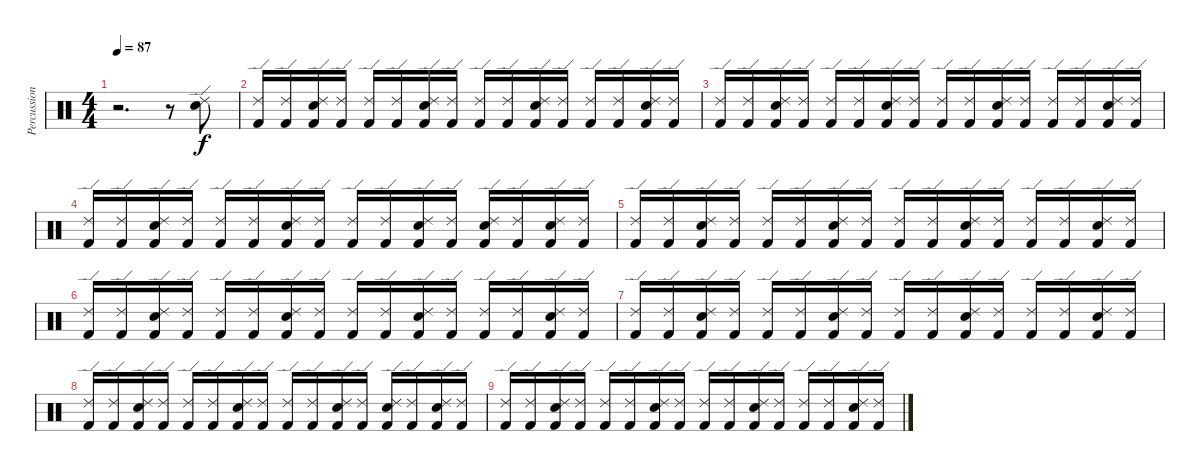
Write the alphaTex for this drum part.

\track ("Percussion" "Percussion") {instrument percussion}
\staff {score}
\articulation defaults
\ts (4 4)
\tempo 87
\clef neutral
\ks c
r.2{d dy f} r.8 ("Ride (edge) 2" "Snare (hit) 2").8 |
("Ride (edge) 2" "Kick (hit) 2").16 ("Ride (edge) 2" "Kick (hit) 2").16 ("Ride (edge) 2" "Snare (hit) 2" "Kick (hit) 2").16 ("Ride (edge) 2" "Kick (hit) 2").16 ("Ride (edge) 2" "Kick (hit) 2").16 ("Ride (edge) 2" "Kick (hit) 2").16 ("Ride (edge) 2" "Snare (hit) 2" "Kick (hit) 2").16 ("Ride (edge) 2" "Kick (hit) 2").16 ("Ride (edge) 2" "Kick (hit) 2").16 ("Ride (edge) 2" "Kick (hit) 2").16 ("Ride (edge) 2" "Snare (hit) 2" "Kick (hit) 2").16 ("Ride (edge) 2" "Kick (hit) 2").16 ("Ride (edge) 2" "Kick (hit) 2").16 ("Ride (edge) 2" "Kick (hit) 2").16 ("Ride (edge) 2" "Snare (hit) 2" "Kick (hit) 2").16 ("Ride (edge) 2" "Kick (hit) 2").16 |
("Ride (edge) 2" "Kick (hit) 2").16 ("Ride (edge) 2" "Kick (hit) 2").16 ("Ride (edge) 2" "Snare (hit) 2" "Kick (hit) 2").16 ("Ride (edge) 2" "Kick (hit) 2").16 ("Ride (edge) 2" "Kick (hit) 2").16 ("Ride (edge) 2" "Kick (hit) 2").16 ("Ride (edge) 2" "Snare (hit) 2" "Kick (hit) 2").16 ("Ride (edge) 2" "Kick (hit) 2").16 ("Ride (edge) 2" "Kick (hit) 2").16 ("Ride (edge) 2" "Kick (hit) 2").16 ("Ride (edge) 2" "Snare (hit) 2" "Kick (hit) 2").16 ("Ride (edge) 2" "Kick (hit) 2").16 ("Ride (edge) 2" "Kick (hit) 2").16 ("Ride (edge) 2" "Kick (hit) 2").16 ("Ride (edge) 2" "Snare (hit) 2" "Kick (hit) 2").16 ("Ride (edge) 2" "Kick (hit) 2").16 |
("Ride (edge) 2" "Kick (hit) 2").16 ("Ride (edge) 2" "Kick (hit) 2").16 ("Ride (edge) 2" "Snare (hit) 2" "Kick (hit) 2").16 ("Ride (edge) 2" "Kick (hit) 2").16 ("Ride (edge) 2" "Kick (hit) 2").16 ("Ride (edge) 2" "Kick (hit) 2").16 ("Ride (edge) 2" "Snare (hit) 2" "Kick (hit) 2").16 ("Ride (edge) 2" "Kick (hit) 2").16 ("Ride (edge) 2" "Kick (hit) 2").16 ("Ride (edge) 2" "Kick (hit) 2").16 ("Ride (edge) 2" "Snare (hit) 2" "Kick (hit) 2").16 ("Ride (edge) 2" "Kick (hit) 2").16 ("Ride (edge) 2" "Snare (hit) 2" "Kick (hit) 2").16 ("Ride (edge) 2" "Kick (hit) 2").16 ("Ride (edge) 2" "Snare (hit) 2" "Kick (hit) 2").16 ("Ride (edge) 2" "Kick (hit) 2").16 |
("Ride (edge) 2" "Kick (hit) 2").16 ("Ride (edge) 2" "Kick (hit) 2").16 ("Ride (edge) 2" "Snare (hit) 2" "Kick (hit) 2").16 ("Ride (edge) 2" "Kick (hit) 2").16 ("Ride (edge) 2" "Kick (hit) 2").16 ("Ride (edge) 2" "Kick (hit) 2").16 ("Ride (edge) 2" "Snare (hit) 2" "Kick (hit) 2").16 ("Ride (edge) 2" "Kick (hit) 2").16 ("Ride (edge) 2" "Kick (hit) 2").16 ("Ride (edge) 2" "Kick (hit) 2").16 ("Ride (edge) 2" "Snare (hit) 2" "Kick (hit) 2").16 ("Ride (edge) 2" "Kick (hit) 2").16 ("Ride (edge) 2" "Kick (hit) 2").16 ("Ride (edge) 2" "Kick (hit) 2").16 ("Ride (edge) 2" "Snare (hit) 2" "Kick (hit) 2").16 ("Ride (edge) 2" "Kick (hit) 2").16 |
("Ride (edge) 2" "Kick (hit) 2").16 ("Ride (edge) 2" "Kick (hit) 2").16 ("Ride (edge) 2" "Snare (hit) 2" "Kick (hit) 2").16 ("Ride (edge) 2" "Kick (hit) 2").16 ("Ride (edge) 2" "Kick (hit) 2").16 ("Ride (edge) 2" "Kick (hit) 2").16 ("Ride (edge) 2" "Snare (hit) 2" "Kick (hit) 2").16 ("Ride (edge) 2" "Kick (hit) 2").16 ("Ride (edge) 2" "Kick (hit) 2").16 ("Ride (edge) 2" "Kick (hit) 2").16 ("Ride (edge) 2" "Snare (hit) 2" "Kick (hit) 2").16 ("Ride (edge) 2" "Kick (hit) 2").16 ("Ride (edge) 2" "Kick (hit) 2").16 ("Ride (edge) 2" "Kick (hit) 2").16 ("Ride (edge) 2" "Snare (hit) 2" "Kick (hit) 2").16 ("Ride (edge) 2" "Kick (hit) 2").16 |
("Ride (edge) 2" "Kick (hit) 2").16 ("Ride (edge) 2" "Kick (hit) 2").16 ("Ride (edge) 2" "Snare (hit) 2" "Kick (hit) 2").16 ("Ride (edge) 2" "Kick (hit) 2").16 ("Ride (edge) 2" "Kick (hit) 2").16 ("Ride (edge) 2" "Kick (hit) 2").16 ("Ride (edge) 2" "Snare (hit) 2" "Kick (hit) 2").16 ("Ride (edge) 2" "Kick (hit) 2").16 ("Ride (edge) 2" "Kick (hit) 2").16 ("Ride (edge) 2" "Kick (hit) 2").16 ("Ride (edge) 2" "Snare (hit) 2" "Kick (hit) 2").16 ("Ride (edge) 2" "Kick (hit) 2").16 ("Ride (edge) 2" "Kick (hit) 2").16 ("Ride (edge) 2" "Kick (hit) 2").16 ("Ride (edge) 2" "Snare (hit) 2" "Kick (hit) 2").16 ("Ride (edge) 2" "Kick (hit) 2").16 |
("Ride (edge) 2" "Kick (hit) 2").16 ("Ride (edge) 2" "Kick (hit) 2").16 ("Ride (edge) 2" "Snare (hit) 2" "Kick (hit) 2").16 ("Ride (edge) 2" "Kick (hit) 2").16 ("Ride (edge) 2" "Kick (hit) 2").16 ("Ride (edge) 2" "Kick (hit) 2").16 ("Ride (edge) 2" "Snare (hit) 2" "Kick (hit) 2").16 ("Ride (edge) 2" "Kick (hit) 2").16 ("Ride (edge) 2" "Kick (hit) 2").16 ("Ride (edge) 2" "Kick (hit) 2").16 ("Ride (edge) 2" "Snare (hit) 2" "Kick (hit) 2").16 ("Ride (edge) 2" "Kick (hit) 2").16 ("Ride (edge) 2" "Snare (hit) 2" "Kick (hit) 2").16 ("Ride (edge) 2" "Kick (hit) 2").16 ("Ride (edge) 2" "Snare (hit) 2" "Kick (hit) 2").16 ("Ride (edge) 2" "Kick (hit) 2").16 |
("Ride (edge) 2" "Kick (hit) 2").16 ("Ride (edge) 2" "Kick (hit) 2").16 ("Ride (edge) 2" "Snare (hit) 2" "Kick (hit) 2").16 ("Ride (edge) 2" "Kick (hit) 2").16 ("Ride (edge) 2" "Kick (hit) 2").16 ("Ride (edge) 2" "Kick (hit) 2").16 ("Ride (edge) 2" "Snare (hit) 2" "Kick (hit) 2").16 ("Ride (edge) 2" "Kick (hit) 2").16 ("Ride (edge) 2" "Kick (hit) 2").16 ("Ride (edge) 2" "Kick (hit) 2").16 ("Ride (edge) 2" "Snare (hit) 2" "Kick (hit) 2").16 ("Ride (edge) 2" "Kick (hit) 2").16 ("Ride (edge) 2" "Kick (hit) 2").16 ("Ride (edge) 2" "Kick (hit) 2").16 ("Ride (edge) 2" "Snare (hit) 2" "Kick (hit) 2").16 ("Ride (edge) 2" "Kick (hit) 2").16
